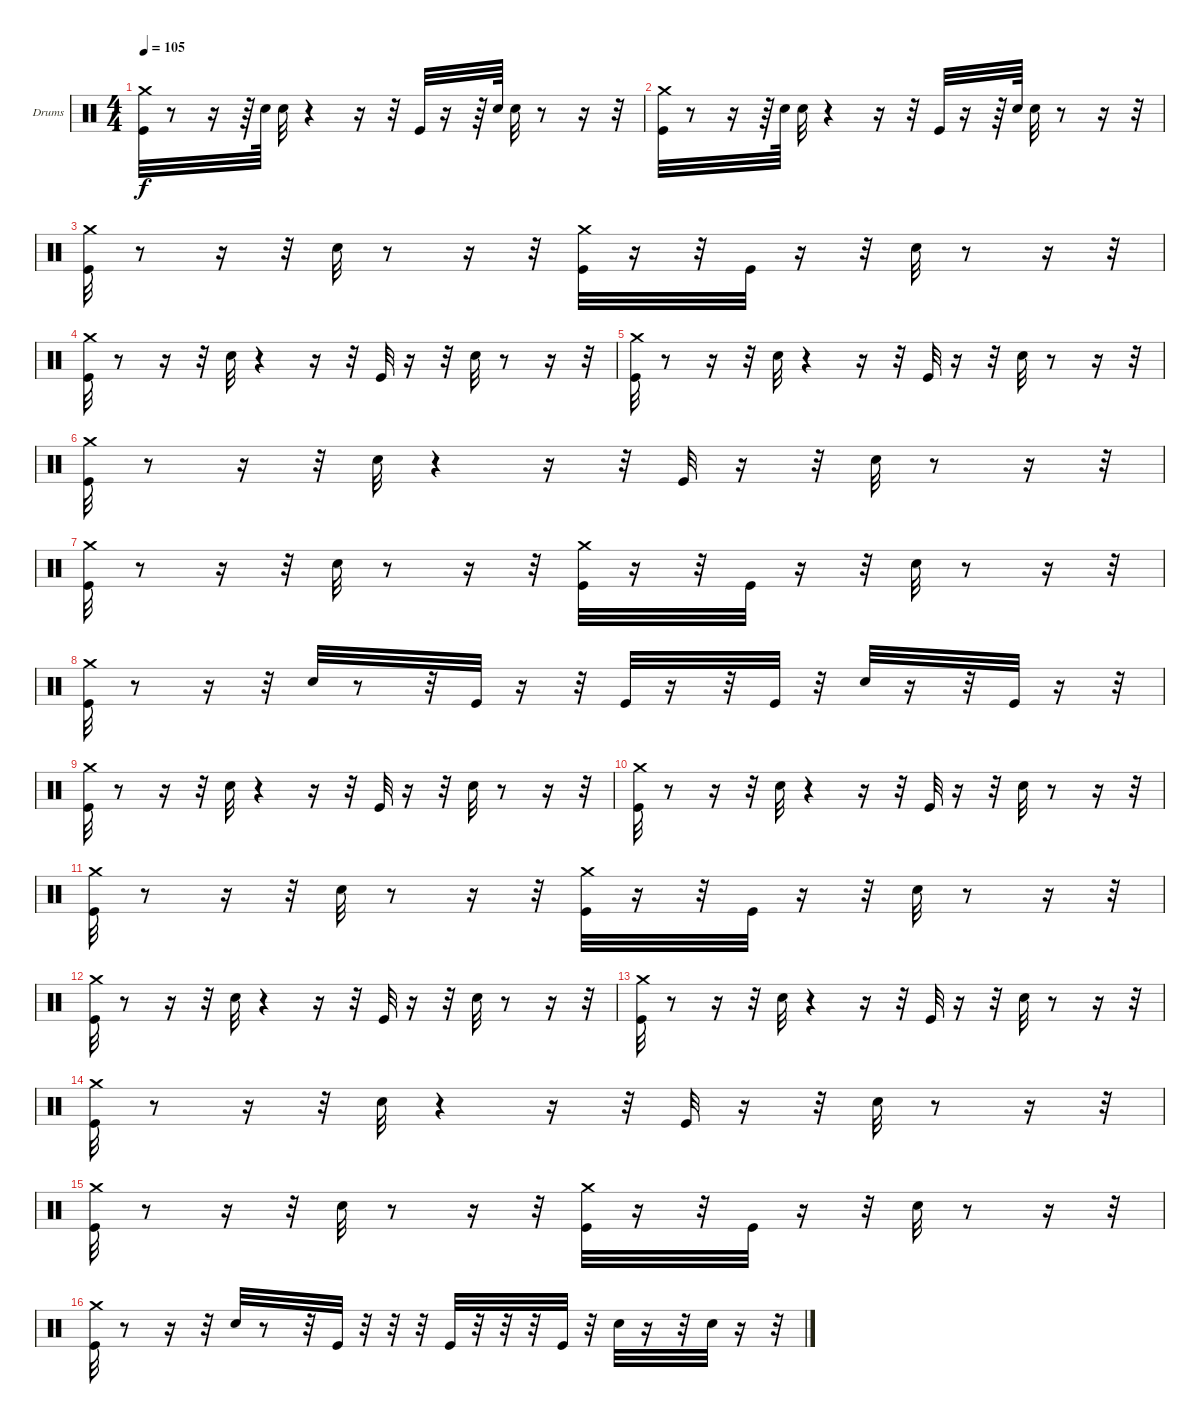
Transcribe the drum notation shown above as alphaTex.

\defaultSystemsLayout 4
\bracketExtendMode groupsimilarinstruments
\firstSystemTrackNameOrientation horizontal
\otherSystemsTrackNameOrientation horizontal
\track ("Drumkit" "Drums") {instrument percussion}
\staff {score}
\articulation defaults
\ts (4 4)
\tempo 105
\clef neutral
\ks c
("Kick (hit)" "Crash medium (hit)").32{dy f} r.8 r.16 r.64 "Snare (hit) 2".64 "Snare (hit) 2".32 r.4 r.16 r.32 "Kick (hit)".32 r.16 r.64 "Snare (hit) 2".64 "Snare (hit) 2".32 r.8 r.16 r.32 |
("Kick (hit)" "Crash medium (hit)").32 r.8 r.16 r.64 "Snare (hit) 2".64 "Snare (hit) 2".32 r.4 r.16 r.32 "Kick (hit)".32 r.16 r.64 "Snare (hit) 2".64 "Snare (hit) 2".32 r.8 r.16 r.32 |
("Kick (hit)" "Crash medium (hit)").32 r.8 r.16 r.32 "Snare (hit) 2".32 r.8 r.16 r.32 ("Kick (hit)" "Crash medium (hit)").32 r.16 r.32 "Kick (hit)".32 r.16 r.32 "Snare (hit) 2".32 r.8 r.16 r.32 |
("Kick (hit)" "Crash medium (hit)").32 r.8 r.16 r.32 "Snare (hit) 2".32 r.4 r.16 r.32 "Kick (hit)".32 r.16 r.32 "Snare (hit) 2".32 r.8 r.16 r.32 |
("Kick (hit)" "Crash medium (hit)").32 r.8 r.16 r.32 "Snare (hit) 2".32 r.4 r.16 r.32 "Kick (hit)".32 r.16 r.32 "Snare (hit) 2".32 r.8 r.16 r.32 |
("Kick (hit)" "Crash medium (hit)").32 r.8 r.16 r.32 "Snare (hit) 2".32 r.4 r.16 r.32 "Kick (hit)".32 r.16 r.32 "Snare (hit) 2".32 r.8 r.16 r.32 |
("Kick (hit)" "Crash medium (hit)").32 r.8 r.16 r.32 "Snare (hit) 2".32 r.8 r.16 r.32 ("Kick (hit)" "Crash medium (hit)").32 r.16 r.32 "Kick (hit)".32 r.16 r.32 "Snare (hit) 2".32 r.8 r.16 r.32 |
("Kick (hit)" "Crash medium (hit)").32 r.8 r.16 r.32 "Snare (hit) 2".32 r.8 r.32 "Kick (hit)".32 r.16 r.32 "Kick (hit)".32 r.16 r.32 "Kick (hit)".32 r.32 "Snare (hit) 2".32 r.16 r.32 "Kick (hit)".32 r.16 r.32 |
("Kick (hit)" "Crash medium (hit)").32 r.8 r.16 r.32 "Snare (hit) 2".32 r.4 r.16 r.32 "Kick (hit)".32 r.16 r.32 "Snare (hit) 2".32 r.8 r.16 r.32 |
("Kick (hit)" "Crash medium (hit)").32 r.8 r.16 r.32 "Snare (hit) 2".32 r.4 r.16 r.32 "Kick (hit)".32 r.16 r.32 "Snare (hit) 2".32 r.8 r.16 r.32 |
("Kick (hit)" "Crash medium (hit)").32 r.8 r.16 r.32 "Snare (hit) 2".32 r.8 r.16 r.32 ("Kick (hit)" "Crash medium (hit)").32 r.16 r.32 "Kick (hit)".32 r.16 r.32 "Snare (hit) 2".32 r.8 r.16 r.32 |
("Kick (hit)" "Crash medium (hit)").32 r.8 r.16 r.32 "Snare (hit) 2".32 r.4 r.16 r.32 "Kick (hit)".32 r.16 r.32 "Snare (hit) 2".32 r.8 r.16 r.32 |
("Kick (hit)" "Crash medium (hit)").32 r.8 r.16 r.32 "Snare (hit) 2".32 r.4 r.16 r.32 "Kick (hit)".32 r.16 r.32 "Snare (hit) 2".32 r.8 r.16 r.32 |
("Kick (hit)" "Crash medium (hit)").32 r.8 r.16 r.32 "Snare (hit) 2".32 r.4 r.16 r.32 "Kick (hit)".32 r.16 r.32 "Snare (hit) 2".32 r.8 r.16 r.32 |
("Kick (hit)" "Crash medium (hit)").32 r.8 r.16 r.32 "Snare (hit) 2".32 r.8 r.16 r.32 ("Kick (hit)" "Crash medium (hit)").32 r.16 r.32 "Kick (hit)".32 r.16 r.32 "Snare (hit) 2".32 r.8 r.16 r.32 |
("Kick (hit)" "Crash medium (hit)").32 r.8 r.16 r.32 "Snare (hit) 2".32 r.8 r.32 "Kick (hit)".32 r.32 r.32 r.32 "Kick (hit)".32 r.32 r.32 r.32 "Kick (hit)".32 r.32 "Snare (hit) 2".32 r.16 r.32 "Snare (hit) 2".32 r.16 r.32
